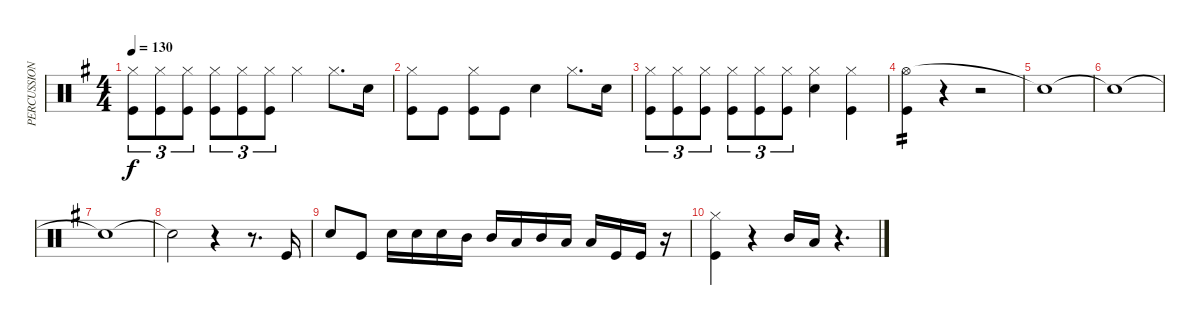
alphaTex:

\track ("PERCUSSION" "PERCUSSION") {instrument percussion}
\staff {score}
\articulation defaults
\ts (4 4)
\tempo 130
\clef neutral
\ks eminor
("Hi-Hat (closed)" "Kick (hit)").8{tu (3 2) dy f} ("Hi-Hat (closed)" "Kick (hit)").8{tu (3 2)} ("Hi-Hat (closed)" "Kick (hit)").8{tu (3 2)} ("Hi-Hat (closed)" "Kick (hit)").8{tu (3 2)} ("Hi-Hat (closed)" "Kick (hit)").8{tu (3 2)} ("Hi-Hat (closed)" "Kick (hit)").8{tu (3 2)} "Hi-Hat (closed)".4 "Hi-Hat (closed)".8{d} "Snare (hit) 2".16 |
("Hi-Hat (closed)" "Kick (hit)").8 "Kick (hit)".8 ("Hi-Hat (closed)" "Kick (hit)").8 "Kick (hit)".8 "Snare (hit) 2".4 "Hi-Hat (closed)".8{d} "Snare (hit) 2".16 |
("Hi-Hat (closed)" "Kick (hit)").8{tu (3 2)} ("Hi-Hat (closed)" "Kick (hit)").8{tu (3 2)} ("Hi-Hat (closed)" "Kick (hit)").8{tu (3 2)} ("Hi-Hat (closed)" "Kick (hit)").8{tu (3 2)} ("Hi-Hat (closed)" "Kick (hit)").8{tu (3 2)} ("Hi-Hat (closed)" "Kick (hit)").8{tu (3 2)} ("Hi-Hat (closed)" "Snare (hit) 2").4 ("Hi-Hat (closed)" "Kick (hit)").4 |
("Hi-Hat (open)" "Kick (hit)").4{tp 2} r.4 r.2 |
"Snare (hit)"{t}.1 |
"Snare (hit)"{t}.1 |
"Snare (hit)"{t}.1 |
"Snare (hit)"{t}.2 r.4 r.8{d} "Kick (hit)".16 |
"Snare (hit) 2".8 "Kick (hit)".8 "Snare (hit) 2".16 "Snare (hit) 2".16 "Snare (hit) 2".16 "Mid Tom (hit)".16 "Mid Tom (hit)".16 "Low Tom (hit)".16 "Mid Tom (hit)".16 "Low Tom (hit)".16 "Low Tom (hit)".16 "Kick (hit)".16 "Kick (hit)".16 r.16 |
("Hi-Hat (closed)" "Kick (hit)").4 r.4 "Mid Tom (hit)".16 "Low Tom (hit)".16 r.4{d}
